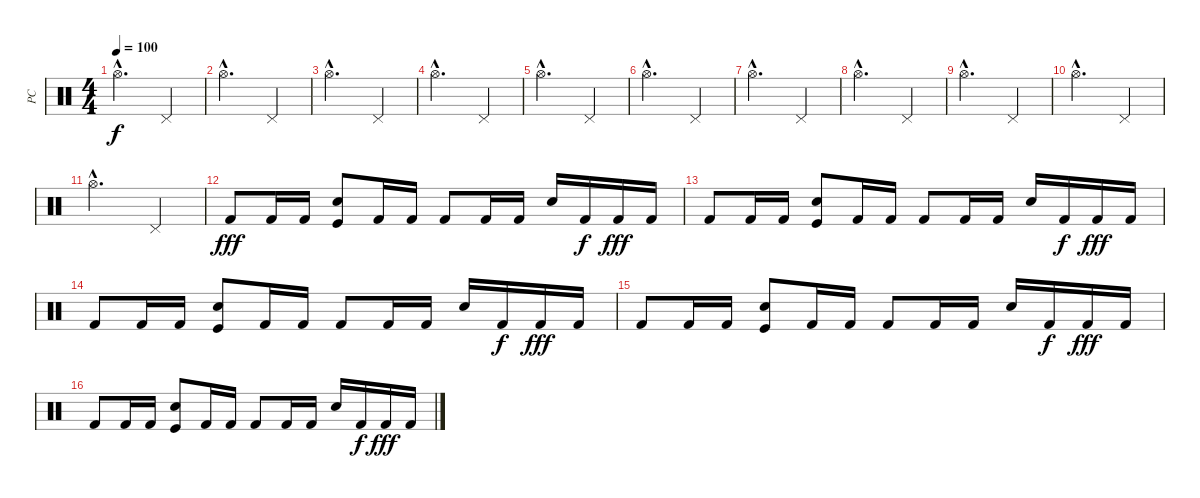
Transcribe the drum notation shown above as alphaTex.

\track ("PC" "PC") {instrument percussion}
\staff {score}
\articulation defaults
\ts (4 4)
\tempo 100
\clef neutral
\ks c "Hi-Hat (open)"{hac}.2{d dy f} "Pedal Hi-Hat (hit)".4
|
"Hi-Hat (open)"{hac}.2{d} "Pedal Hi-Hat (hit)".4 |
"Hi-Hat (open)"{hac}.2{d} "Pedal Hi-Hat (hit)".4 |
"Hi-Hat (open)"{hac}.2{d} "Pedal Hi-Hat (hit)".4 |
"Hi-Hat (open)"{hac}.2{d} "Pedal Hi-Hat (hit)".4 |
"Hi-Hat (open)"{hac}.2{d} "Pedal Hi-Hat (hit)".4 |
"Hi-Hat (open)"{hac}.2{d} "Pedal Hi-Hat (hit)".4 |
"Hi-Hat (open)"{hac}.2{d} "Pedal Hi-Hat (hit)".4 |
"Hi-Hat (open)"{hac}.2{d} "Pedal Hi-Hat (hit)".4 |
"Hi-Hat (open)"{hac}.2{d} "Pedal Hi-Hat (hit)".4 |
"Hi-Hat (open)"{hac}.2{d} "Pedal Hi-Hat (hit)".4 |
"Kick (hit) 2".8{dy fff} "Kick (hit) 2".16 "Kick (hit) 2".16 ("Kick (hit)" "Electric Snare (hit)").8 "Kick (hit) 2".16 "Kick (hit) 2".16 "Kick (hit) 2".8 "Kick (hit) 2".16 "Kick (hit) 2".16 "Electric Snare (hit)".16 "Kick (hit) 2".16{dy f} "Kick (hit) 2".16{dy fff} "Kick (hit) 2".16 |
"Kick (hit) 2".8 "Kick (hit) 2".16 "Kick (hit) 2".16 ("Kick (hit)" "Electric Snare (hit)").8 "Kick (hit) 2".16 "Kick (hit) 2".16 "Kick (hit) 2".8 "Kick (hit) 2".16 "Kick (hit) 2".16 "Electric Snare (hit)".16 "Kick (hit) 2".16{dy f} "Kick (hit) 2".16{dy fff} "Kick (hit) 2".16 |
"Kick (hit) 2".8 "Kick (hit) 2".16 "Kick (hit) 2".16 ("Kick (hit)" "Electric Snare (hit)").8 "Kick (hit) 2".16 "Kick (hit) 2".16 "Kick (hit) 2".8 "Kick (hit) 2".16 "Kick (hit) 2".16 "Electric Snare (hit)".16 "Kick (hit) 2".16{dy f} "Kick (hit) 2".16{dy fff} "Kick (hit) 2".16 |
"Kick (hit) 2".8 "Kick (hit) 2".16 "Kick (hit) 2".16 ("Kick (hit)" "Electric Snare (hit)").8 "Kick (hit) 2".16 "Kick (hit) 2".16 "Kick (hit) 2".8 "Kick (hit) 2".16 "Kick (hit) 2".16 "Electric Snare (hit)".16 "Kick (hit) 2".16{dy f} "Kick (hit) 2".16{dy fff} "Kick (hit) 2".16 |
"Kick (hit) 2".8 "Kick (hit) 2".16 "Kick (hit) 2".16 ("Kick (hit)" "Electric Snare (hit)").8 "Kick (hit) 2".16 "Kick (hit) 2".16 "Kick (hit) 2".8 "Kick (hit) 2".16 "Kick (hit) 2".16 "Electric Snare (hit)".16 "Kick (hit) 2".16{dy f} "Kick (hit) 2".16{dy fff} "Kick (hit) 2".16
